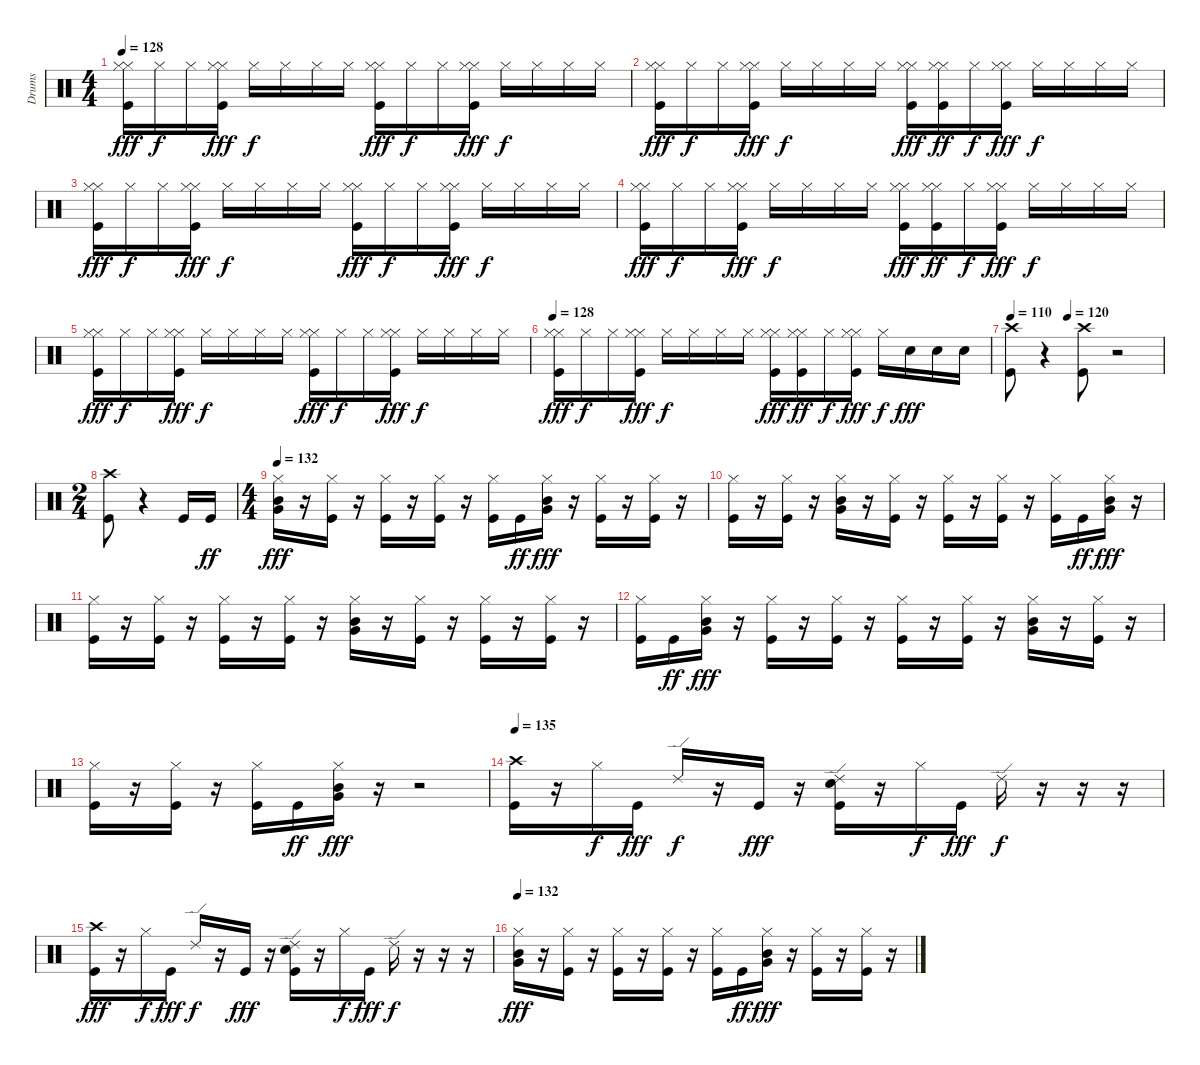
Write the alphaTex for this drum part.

\track ("Drums" "Drums") {instrument percussion}
\staff {score}
\articulation defaults
\ts (4 4)
\tempo 128
\clef neutral
\ks c
("Hi-Hat (closed)" "Hi-Hat (closed)" "Kick (hit)").16{dy fff} "Hi-Hat (closed)".16{dy f} "Hi-Hat (closed)".16 ("Hi-Hat (closed)" "Hi-Hat (closed)" "Kick (hit)").16{dy fff} "Hi-Hat (closed)".16{dy f} "Hi-Hat (closed)".16 "Hi-Hat (closed)".16 "Hi-Hat (closed)".16 ("Hi-Hat (closed)" "Hi-Hat (closed)" "Kick (hit)").16{dy fff} "Hi-Hat (closed)".16{dy f} "Hi-Hat (closed)".16 ("Hi-Hat (closed)" "Hi-Hat (closed)" "Kick (hit)").16{dy fff} "Hi-Hat (closed)".16{dy f} "Hi-Hat (closed)".16 "Hi-Hat (closed)".16 "Hi-Hat (closed)".16 |
("Hi-Hat (closed)" "Hi-Hat (closed)" "Kick (hit)").16{dy fff} "Hi-Hat (closed)".16{dy f} "Hi-Hat (closed)".16 ("Hi-Hat (closed)" "Hi-Hat (closed)" "Kick (hit)").16{dy fff} "Hi-Hat (closed)".16{dy f} "Hi-Hat (closed)".16 "Hi-Hat (closed)".16 "Hi-Hat (closed)".16 ("Hi-Hat (closed)" "Hi-Hat (closed)" "Kick (hit)").16{dy fff} ("Hi-Hat (closed)" "Hi-Hat (closed)" "Kick (hit)").16{dy ff} "Hi-Hat (closed)".16{dy f} ("Hi-Hat (closed)" "Hi-Hat (closed)" "Kick (hit)").16{dy fff} "Hi-Hat (closed)".16{dy f} "Hi-Hat (closed)".16 "Hi-Hat (closed)".16 "Hi-Hat (closed)".16 |
("Hi-Hat (closed)" "Hi-Hat (closed)" "Kick (hit)").16{dy fff} "Hi-Hat (closed)".16{dy f} "Hi-Hat (closed)".16 ("Hi-Hat (closed)" "Hi-Hat (closed)" "Kick (hit)").16{dy fff} "Hi-Hat (closed)".16{dy f} "Hi-Hat (closed)".16 "Hi-Hat (closed)".16 "Hi-Hat (closed)".16 ("Hi-Hat (closed)" "Hi-Hat (closed)" "Kick (hit)").16{dy fff} "Hi-Hat (closed)".16{dy f} "Hi-Hat (closed)".16 ("Hi-Hat (closed)" "Hi-Hat (closed)" "Kick (hit)").16{dy fff} "Hi-Hat (closed)".16{dy f} "Hi-Hat (closed)".16 "Hi-Hat (closed)".16 "Hi-Hat (closed)".16 |
("Hi-Hat (closed)" "Hi-Hat (closed)" "Kick (hit)").16{dy fff} "Hi-Hat (closed)".16{dy f} "Hi-Hat (closed)".16 ("Hi-Hat (closed)" "Hi-Hat (closed)" "Kick (hit)").16{dy fff} "Hi-Hat (closed)".16{dy f} "Hi-Hat (closed)".16 "Hi-Hat (closed)".16 "Hi-Hat (closed)".16 ("Hi-Hat (closed)" "Hi-Hat (closed)" "Kick (hit)").16{dy fff} ("Hi-Hat (closed)" "Hi-Hat (closed)" "Kick (hit)").16{dy ff} "Hi-Hat (closed)".16{dy f} ("Hi-Hat (closed)" "Hi-Hat (closed)" "Kick (hit)").16{dy fff} "Hi-Hat (closed)".16{dy f} "Hi-Hat (closed)".16 "Hi-Hat (closed)".16 "Hi-Hat (closed)".16 |
("Hi-Hat (closed)" "Hi-Hat (closed)" "Kick (hit)").16{dy fff} "Hi-Hat (closed)".16{dy f} "Hi-Hat (closed)".16 ("Hi-Hat (closed)" "Hi-Hat (closed)" "Kick (hit)").16{dy fff} "Hi-Hat (closed)".16{dy f} "Hi-Hat (closed)".16 "Hi-Hat (closed)".16 "Hi-Hat (closed)".16 ("Hi-Hat (closed)" "Hi-Hat (closed)" "Kick (hit)").16{dy fff} "Hi-Hat (closed)".16{dy f} "Hi-Hat (closed)".16 ("Hi-Hat (closed)" "Hi-Hat (closed)" "Kick (hit)").16{dy fff} "Hi-Hat (closed)".16{dy f} "Hi-Hat (closed)".16 "Hi-Hat (closed)".16 "Hi-Hat (closed)".16 |
\tempo 128
("Hi-Hat (closed)" "Hi-Hat (closed)" "Kick (hit)").16{dy fff} "Hi-Hat (closed)".16{dy f} "Hi-Hat (closed)".16 ("Hi-Hat (closed)" "Hi-Hat (closed)" "Kick (hit)").16{dy fff} "Hi-Hat (closed)".16{dy f} "Hi-Hat (closed)".16 "Hi-Hat (closed)".16 "Hi-Hat (closed)".16 ("Hi-Hat (closed)" "Hi-Hat (closed)" "Kick (hit)").16{dy fff} ("Hi-Hat (closed)" "Hi-Hat (closed)" "Kick (hit)").16{dy ff} "Hi-Hat (closed)".16{dy f} ("Hi-Hat (closed)" "Hi-Hat (closed)" "Kick (hit)").16{dy fff} "Hi-Hat (closed)".16{dy f} "Snare (hit) 2".16{dy fff} "Snare (hit) 2".16 "Snare (hit) 2".16 |
\tempo 110
\tempo (120 0.375)
("Crash high (hit)" "Kick (hit)").8 r.4 ("Crash high (hit)" "Kick (hit)").8 r.2 |
\ts (2 4)
("Crash high (hit)" "Kick (hit)").8 r.4 "Kick (hit)".16 "Kick (hit)".16{dy ff} |
\ts (4 4)
\tempo 132
("Hi-Hat (closed)" "Mid Tom (hit)" "Very Low Tom (hit)").16{dy fff} r.16 ("Hi-Hat (closed)" "Kick (hit)").16 r.16 ("Hi-Hat (closed)" "Kick (hit)").16 r.16 ("Hi-Hat (closed)" "Kick (hit)").16 r.16 ("Hi-Hat (closed)" "Kick (hit)").16 "Kick (hit)".16{dy ff} ("Hi-Hat (closed)" "Mid Tom (hit)" "Very Low Tom (hit)").16{dy fff} r.16 ("Hi-Hat (closed)" "Kick (hit)").16 r.16 ("Hi-Hat (closed)" "Kick (hit)").16 r.16 |
("Hi-Hat (closed)" "Kick (hit)").16 r.16 ("Hi-Hat (closed)" "Kick (hit)").16 r.16 ("Hi-Hat (closed)" "Mid Tom (hit)" "Very Low Tom (hit)").16 r.16 ("Hi-Hat (closed)" "Kick (hit)").16 r.16 ("Hi-Hat (closed)" "Kick (hit)").16 r.16 ("Hi-Hat (closed)" "Kick (hit)").16 r.16 ("Hi-Hat (closed)" "Kick (hit)").16 "Kick (hit)".16{dy ff} ("Hi-Hat (closed)" "Mid Tom (hit)" "Very Low Tom (hit)").16{dy fff} r.16 |
("Hi-Hat (closed)" "Kick (hit)").16 r.16 ("Hi-Hat (closed)" "Kick (hit)").16 r.16 ("Hi-Hat (closed)" "Kick (hit)").16 r.16 ("Hi-Hat (closed)" "Kick (hit)").16 r.16 ("Hi-Hat (closed)" "Mid Tom (hit)" "Very Low Tom (hit)").16 r.16 ("Hi-Hat (closed)" "Kick (hit)").16 r.16 ("Hi-Hat (closed)" "Kick (hit)").16 r.16 ("Hi-Hat (closed)" "Kick (hit)").16 r.16 |
("Hi-Hat (closed)" "Kick (hit)").16 "Kick (hit)".16{dy ff} ("Hi-Hat (closed)" "Mid Tom (hit)" "Very Low Tom (hit)").16{dy fff} r.16 ("Hi-Hat (closed)" "Kick (hit)").16 r.16 ("Hi-Hat (closed)" "Kick (hit)").16 r.16 ("Hi-Hat (closed)" "Kick (hit)").16 r.16 ("Hi-Hat (closed)" "Kick (hit)").16 r.16 ("Hi-Hat (closed)" "Mid Tom (hit)" "Very Low Tom (hit)").16 r.16 ("Hi-Hat (closed)" "Kick (hit)").16 r.16 |
("Hi-Hat (closed)" "Kick (hit)").16 r.16 ("Hi-Hat (closed)" "Kick (hit)").16 r.16 ("Hi-Hat (closed)" "Kick (hit)").16 "Kick (hit)".16{dy ff} ("Hi-Hat (closed)" "Mid Tom (hit)" "Very Low Tom (hit)").16{dy fff} r.16 r.2 |
\tempo 135
("Crash high (hit)" "Kick (hit)").16 r.16 "Hi-Hat (closed)".16{dy f} "Kick (hit)".16{dy fff} "Ride (edge) 2".16{dy f} r.16 "Kick (hit)".16{dy fff} r.16 ("Ride (edge) 2" "Snare (hit) 2" "Kick (hit)").16 r.16 "Hi-Hat (closed)".16{dy f} "Kick (hit)".16{dy fff} "Ride (edge) 2".16{dy f} r.16 r.16 r.16 |
("Crash high (hit)" "Kick (hit)").16{dy fff} r.16 "Hi-Hat (closed)".16{dy f} "Kick (hit)".16{dy fff} "Ride (edge) 2".16{dy f} r.16 "Kick (hit)".16{dy fff} r.16 ("Ride (edge) 2" "Snare (hit) 2" "Kick (hit)").16 r.16 "Hi-Hat (closed)".16{dy f} "Kick (hit)".16{dy fff} "Ride (edge) 2".16{dy f} r.16 r.16 r.16 |
\tempo 132
("Hi-Hat (closed)" "Mid Tom (hit)" "Very Low Tom (hit)").16{dy fff} r.16 ("Hi-Hat (closed)" "Kick (hit)").16 r.16 ("Hi-Hat (closed)" "Kick (hit)").16 r.16 ("Hi-Hat (closed)" "Kick (hit)").16 r.16 ("Hi-Hat (closed)" "Kick (hit)").16 "Kick (hit)".16{dy ff} ("Hi-Hat (closed)" "Mid Tom (hit)" "Very Low Tom (hit)").16{dy fff} r.16 ("Hi-Hat (closed)" "Kick (hit)").16 r.16 ("Hi-Hat (closed)" "Kick (hit)").16 r.16
